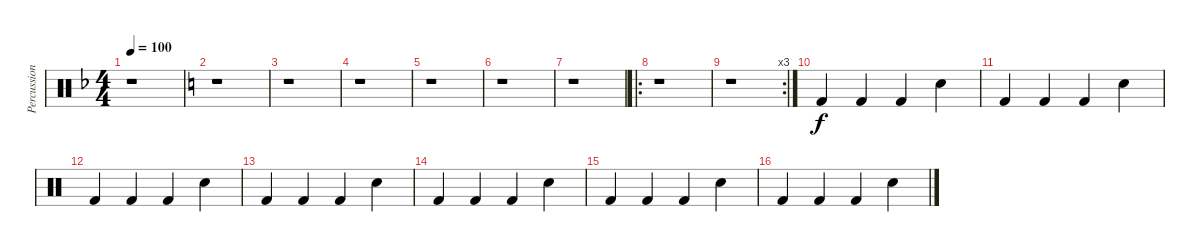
\track ("Percussions" "Percussion") {instrument percussion}
\staff {score}
\articulation defaults
\ts (4 4)
\tempo 100
\clef neutral
\ks dminor
r.1{dy f} |
\ks c
r.1 |
r.1 |
r.1 |
r.1 |
r.1 |
r.1 |
\ro
r.1 |
\rc 3
r.1 |
"Kick (hit) 2".4{volume 10} "Kick (hit) 2".4 "Kick (hit) 2".4 "Electric Snare (hit)".4 |
"Kick (hit) 2".4 "Kick (hit) 2".4 "Kick (hit) 2".4 "Electric Snare (hit)".4 |
"Kick (hit) 2".4 "Kick (hit) 2".4 "Kick (hit) 2".4 "Electric Snare (hit)".4 |
"Kick (hit) 2".4 "Kick (hit) 2".4 "Kick (hit) 2".4 "Electric Snare (hit)".4 |
"Kick (hit) 2".4 "Kick (hit) 2".4 "Kick (hit) 2".4 "Electric Snare (hit)".4 |
"Kick (hit) 2".4 "Kick (hit) 2".4 "Kick (hit) 2".4 "Electric Snare (hit)".4 |
"Kick (hit) 2".4 "Kick (hit) 2".4 "Kick (hit) 2".4 "Electric Snare (hit)".4
